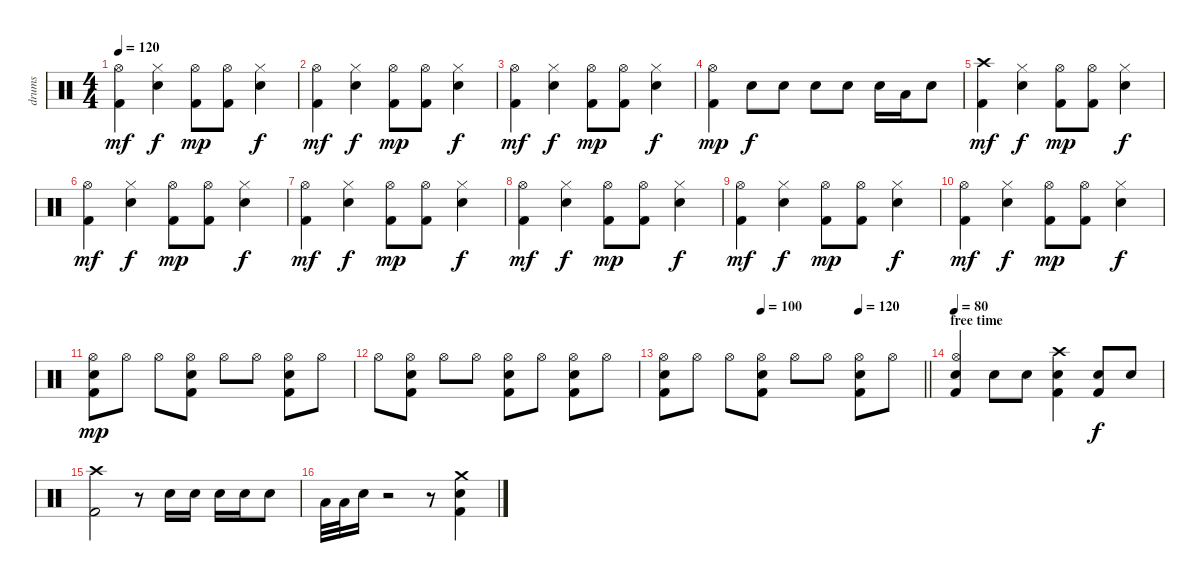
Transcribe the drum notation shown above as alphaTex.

\track ("drums" "drums") {instrument percussion}
\staff {score}
\articulation defaults
\ts (4 4)
\tempo 120
\clef neutral
\ks c
("Kick (hit) 2" "Hi-Hat (open)").4{dy mf} ("Electric Snare (hit)" "Hi-Hat (closed)").4{dy f} ("Kick (hit) 2" "Hi-Hat (open)").8{dy mp} ("Kick (hit) 2" "Hi-Hat (open)").8 ("Electric Snare (hit)" "Hi-Hat (closed)").4{dy f} |
("Kick (hit) 2" "Hi-Hat (open)").4{dy mf} ("Electric Snare (hit)" "Hi-Hat (closed)").4{dy f} ("Kick (hit) 2" "Hi-Hat (open)").8{dy mp} ("Kick (hit) 2" "Hi-Hat (open)").8 ("Electric Snare (hit)" "Hi-Hat (closed)").4{dy f} |
("Kick (hit) 2" "Hi-Hat (open)").4{dy mf} ("Electric Snare (hit)" "Hi-Hat (closed)").4{dy f} ("Kick (hit) 2" "Hi-Hat (open)").8{dy mp} ("Kick (hit) 2" "Hi-Hat (open)").8 ("Electric Snare (hit)" "Hi-Hat (closed)").4{dy f} |
("Kick (hit) 2" "Hi-Hat (open)").4{dy mp} "Electric Snare (hit)".8{dy f} "Electric Snare (hit)".8 "Electric Snare (hit)".8 "Electric Snare (hit)".8 "Electric Snare (hit)".16 "Low Floor Tom (hit)".16 "Electric Snare (hit)".8 |
("Kick (hit) 2" "Crash high (hit)").4{dy mf} ("Electric Snare (hit)" "Hi-Hat (closed)").4{dy f} ("Kick (hit) 2" "Hi-Hat (open)").8{dy mp} ("Kick (hit) 2" "Hi-Hat (open)").8 ("Electric Snare (hit)" "Hi-Hat (closed)").4{dy f} |
("Kick (hit) 2" "Hi-Hat (open)").4{dy mf} ("Electric Snare (hit)" "Hi-Hat (closed)").4{dy f} ("Kick (hit) 2" "Hi-Hat (open)").8{dy mp} ("Kick (hit) 2" "Hi-Hat (open)").8 ("Electric Snare (hit)" "Hi-Hat (closed)").4{dy f} |
("Kick (hit) 2" "Hi-Hat (open)").4{dy mf} ("Electric Snare (hit)" "Hi-Hat (closed)").4{dy f} ("Kick (hit) 2" "Hi-Hat (open)").8{dy mp} ("Kick (hit) 2" "Hi-Hat (open)").8 ("Electric Snare (hit)" "Hi-Hat (closed)").4{dy f} |
("Kick (hit) 2" "Hi-Hat (open)").4{dy mf} ("Electric Snare (hit)" "Hi-Hat (closed)").4{dy f} ("Kick (hit) 2" "Hi-Hat (open)").8{dy mp} ("Kick (hit) 2" "Hi-Hat (open)").8 ("Electric Snare (hit)" "Hi-Hat (closed)").4{dy f} |
("Kick (hit) 2" "Hi-Hat (open)").4{dy mf} ("Electric Snare (hit)" "Hi-Hat (closed)").4{dy f} ("Kick (hit) 2" "Hi-Hat (open)").8{dy mp} ("Kick (hit) 2" "Hi-Hat (open)").8 ("Electric Snare (hit)" "Hi-Hat (closed)").4{dy f} |
("Kick (hit) 2" "Hi-Hat (open)").4{dy mf} ("Electric Snare (hit)" "Hi-Hat (closed)").4{dy f} ("Kick (hit) 2" "Hi-Hat (open)").8{dy mp} ("Kick (hit) 2" "Hi-Hat (open)").8 ("Electric Snare (hit)" "Hi-Hat (closed)").4{dy f} |
("Electric Snare (hit)" "Hi-Hat (open)" "Kick (hit) 2").8{dy mp} "Hi-Hat (open)".8 "Hi-Hat (open)".8 ("Electric Snare (hit)" "Hi-Hat (open)" "Kick (hit) 2").8 "Hi-Hat (open)".8 "Hi-Hat (open)".8 ("Electric Snare (hit)" "Hi-Hat (open)" "Kick (hit) 2").8 "Hi-Hat (open)".8 |
"Hi-Hat (open)".8 ("Electric Snare (hit)" "Hi-Hat (open)" "Kick (hit) 2").8 "Hi-Hat (open)".8 "Hi-Hat (open)".8 ("Electric Snare (hit)" "Hi-Hat (open)" "Kick (hit) 2").8 "Hi-Hat (open)".8 ("Electric Snare (hit)" "Hi-Hat (open)" "Kick (hit) 2").8 "Hi-Hat (open)".8 |
\tempo (100 0.375)
\tempo (90 0.75)
\tempo (120 0.75)
\barLineRight lightlight
("Electric Snare (hit)" "Hi-Hat (open)" "Kick (hit) 2").8 "Hi-Hat (open)".8 "Hi-Hat (open)".8 ("Electric Snare (hit)" "Hi-Hat (open)" "Kick (hit) 2").8 "Hi-Hat (open)".8 "Hi-Hat (open)".8 ("Electric Snare (hit)" "Hi-Hat (open)" "Kick (hit) 2").8 "Hi-Hat (open)".8 |
\section ("" "free time")
\tempo 80
("Electric Snare (hit)" "Hi-Hat (open)" "Kick (hit) 2").4 "Electric Snare (hit)".8 "Electric Snare (hit)".8 ("Electric Snare (hit)" "Crash high (hit)" "Kick (hit) 2").4 ("Kick (hit) 2" "Electric Snare (hit)").8{dy f} "Electric Snare (hit)".8 |
("Crash high (hit)" "Kick (hit) 2").2 r.8 "Electric Snare (hit)".16 "Electric Snare (hit)".16 "Electric Snare (hit)".16 "Electric Snare (hit)".16 "Electric Snare (hit)".8 |
"Low Floor Tom (hit)".32 "Low Floor Tom (hit)".32 "Electric Snare (hit)".16 r.2 r.8 ("Electric Snare (hit)" "Kick (hit) 2" "Crash medium (hit)").4
